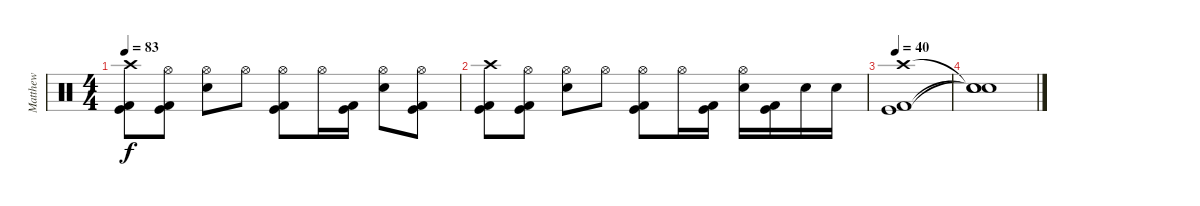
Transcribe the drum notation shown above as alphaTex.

\track ("Matthew" "Matthew") {instrument percussion}
\staff {score}
\articulation defaults
\ts (4 4)
\tempo 83
\clef neutral
\ks c
("Kick (hit) 2" "Kick (hit)" "Crash high (hit)").8{dy f} ("Kick (hit) 2" "Kick (hit)" "Hi-Hat (open)").8 ("Snare (hit) 2" "Hi-Hat (open)").8 "Hi-Hat (open)".8 ("Hi-Hat (open)" "Kick (hit) 2" "Kick (hit)").8 "Hi-Hat (open)".16 ("Kick (hit) 2" "Kick (hit)").16 ("Snare (hit) 2" "Hi-Hat (open)").8 ("Kick (hit) 2" "Kick (hit)" "Hi-Hat (open)").8 |
("Kick (hit) 2" "Kick (hit)" "Crash high (hit)").8 ("Kick (hit) 2" "Kick (hit)" "Hi-Hat (open)").8 ("Snare (hit) 2" "Hi-Hat (open)").8 "Hi-Hat (open)".8 ("Hi-Hat (open)" "Kick (hit) 2" "Kick (hit)").8 "Hi-Hat (open)".16 ("Kick (hit) 2" "Kick (hit)").16 ("Snare (hit) 2" "Hi-Hat (open)").16 ("Kick (hit) 2" "Kick (hit)").16 "Snare (hit) 2".16 "Snare (hit) 2".16 |
\tempo 40
("Kick (hit) 2" "Kick (hit)" "Crash high (hit)").1 |
("Snare (hit)"{t} "Snare (hit)"{t} "Snare (hit)"{t}).1
